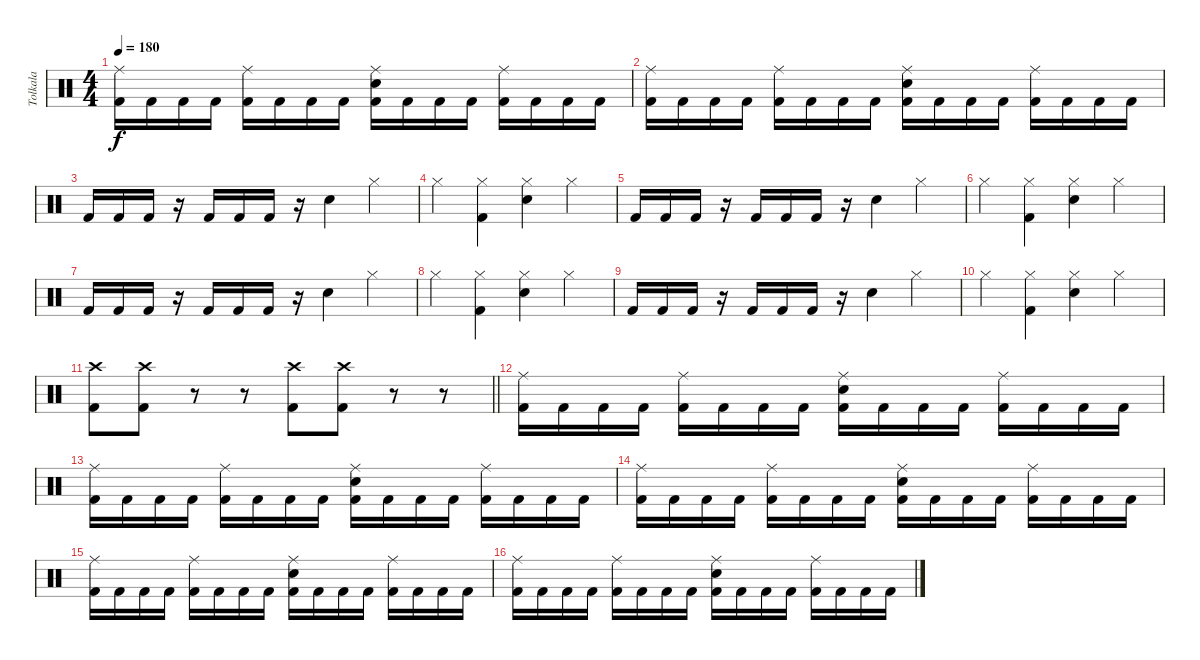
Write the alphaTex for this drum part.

\track ("Tolkala" "Tolkala") {instrument percussion}
\staff {score}
\articulation defaults
\ts (4 4)
\tempo 180
\clef neutral
\ks c
("Ride (middle)" "Kick (hit) 2").16{dy f} "Kick (hit) 2".16 "Kick (hit) 2".16 "Kick (hit) 2".16 ("Ride (middle)" "Kick (hit) 2").16 "Kick (hit) 2".16 "Kick (hit) 2".16 "Kick (hit) 2".16 ("Ride (middle)" "Electric Snare (hit)" "Kick (hit) 2").16 "Kick (hit) 2".16 "Kick (hit) 2".16 "Kick (hit) 2".16 ("Ride (middle)" "Kick (hit) 2").16 "Kick (hit) 2".16 "Kick (hit) 2".16 "Kick (hit) 2".16 |
("Ride (middle)" "Kick (hit) 2").16 "Kick (hit) 2".16 "Kick (hit) 2".16 "Kick (hit) 2".16 ("Ride (middle)" "Kick (hit) 2").16 "Kick (hit) 2".16 "Kick (hit) 2".16 "Kick (hit) 2".16 ("Ride (middle)" "Electric Snare (hit)" "Kick (hit) 2").16 "Kick (hit) 2".16 "Kick (hit) 2".16 "Kick (hit) 2".16 ("Ride (middle)" "Kick (hit) 2").16 "Kick (hit) 2".16 "Kick (hit) 2".16 "Kick (hit) 2".16 |
"Kick (hit) 2".16 "Kick (hit) 2".16 "Kick (hit) 2".16 r.16 "Kick (hit) 2".16 "Kick (hit) 2".16 "Kick (hit) 2".16 r.16 "Electric Snare (hit)".4 "Hi-Hat (closed)".4 |
"Hi-Hat (closed)".4 ("Hi-Hat (closed)" "Kick (hit) 2").4 ("Hi-Hat (closed)" "Electric Snare (hit)").4 "Hi-Hat (closed)".4 |
"Kick (hit) 2".16 "Kick (hit) 2".16 "Kick (hit) 2".16 r.16 "Kick (hit) 2".16 "Kick (hit) 2".16 "Kick (hit) 2".16 r.16 "Electric Snare (hit)".4 "Hi-Hat (closed)".4 |
"Hi-Hat (closed)".4 ("Hi-Hat (closed)" "Kick (hit) 2").4 ("Hi-Hat (closed)" "Electric Snare (hit)").4 "Hi-Hat (closed)".4 |
"Kick (hit) 2".16 "Kick (hit) 2".16 "Kick (hit) 2".16 r.16 "Kick (hit) 2".16 "Kick (hit) 2".16 "Kick (hit) 2".16 r.16 "Electric Snare (hit)".4 "Hi-Hat (closed)".4 |
"Hi-Hat (closed)".4 ("Hi-Hat (closed)" "Kick (hit) 2").4 ("Hi-Hat (closed)" "Electric Snare (hit)").4 "Hi-Hat (closed)".4 |
"Kick (hit) 2".16 "Kick (hit) 2".16 "Kick (hit) 2".16 r.16 "Kick (hit) 2".16 "Kick (hit) 2".16 "Kick (hit) 2".16 r.16 "Electric Snare (hit)".4 "Hi-Hat (closed)".4 |
"Hi-Hat (closed)".4 ("Hi-Hat (closed)" "Kick (hit) 2").4 ("Hi-Hat (closed)" "Electric Snare (hit)").4 "Hi-Hat (closed)".4 |
\barLineRight lightlight
("Crash high (hit)" "Kick (hit) 2").8 ("Crash high (hit)" "Kick (hit) 2").8 r.8 r.8 ("Crash high (hit)" "Kick (hit) 2").8 ("Crash high (hit)" "Kick (hit) 2").8 r.8 r.8 |
\section ("" "")
("Ride (middle)" "Kick (hit) 2").16 "Kick (hit) 2".16 "Kick (hit) 2".16 "Kick (hit) 2".16 ("Ride (middle)" "Kick (hit) 2").16 "Kick (hit) 2".16 "Kick (hit) 2".16 "Kick (hit) 2".16 ("Ride (middle)" "Electric Snare (hit)" "Kick (hit) 2").16 "Kick (hit) 2".16 "Kick (hit) 2".16 "Kick (hit) 2".16 ("Ride (middle)" "Kick (hit) 2").16 "Kick (hit) 2".16 "Kick (hit) 2".16 "Kick (hit) 2".16 |
("Ride (middle)" "Kick (hit) 2").16 "Kick (hit) 2".16 "Kick (hit) 2".16 "Kick (hit) 2".16 ("Ride (middle)" "Kick (hit) 2").16 "Kick (hit) 2".16 "Kick (hit) 2".16 "Kick (hit) 2".16 ("Ride (middle)" "Electric Snare (hit)" "Kick (hit) 2").16 "Kick (hit) 2".16 "Kick (hit) 2".16 "Kick (hit) 2".16 ("Ride (middle)" "Kick (hit) 2").16 "Kick (hit) 2".16 "Kick (hit) 2".16 "Kick (hit) 2".16 |
("Ride (middle)" "Kick (hit) 2").16 "Kick (hit) 2".16 "Kick (hit) 2".16 "Kick (hit) 2".16 ("Ride (middle)" "Kick (hit) 2").16 "Kick (hit) 2".16 "Kick (hit) 2".16 "Kick (hit) 2".16 ("Ride (middle)" "Electric Snare (hit)" "Kick (hit) 2").16 "Kick (hit) 2".16 "Kick (hit) 2".16 "Kick (hit) 2".16 ("Ride (middle)" "Kick (hit) 2").16 "Kick (hit) 2".16 "Kick (hit) 2".16 "Kick (hit) 2".16 |
("Ride (middle)" "Kick (hit) 2").16 "Kick (hit) 2".16 "Kick (hit) 2".16 "Kick (hit) 2".16 ("Ride (middle)" "Kick (hit) 2").16 "Kick (hit) 2".16 "Kick (hit) 2".16 "Kick (hit) 2".16 ("Ride (middle)" "Electric Snare (hit)" "Kick (hit) 2").16 "Kick (hit) 2".16 "Kick (hit) 2".16 "Kick (hit) 2".16 ("Ride (middle)" "Kick (hit) 2").16 "Kick (hit) 2".16 "Kick (hit) 2".16 "Kick (hit) 2".16 |
("Ride (middle)" "Kick (hit) 2").16 "Kick (hit) 2".16 "Kick (hit) 2".16 "Kick (hit) 2".16 ("Ride (middle)" "Kick (hit) 2").16 "Kick (hit) 2".16 "Kick (hit) 2".16 "Kick (hit) 2".16 ("Ride (middle)" "Electric Snare (hit)" "Kick (hit) 2").16 "Kick (hit) 2".16 "Kick (hit) 2".16 "Kick (hit) 2".16 ("Ride (middle)" "Kick (hit) 2").16 "Kick (hit) 2".16 "Kick (hit) 2".16 "Kick (hit) 2".16
